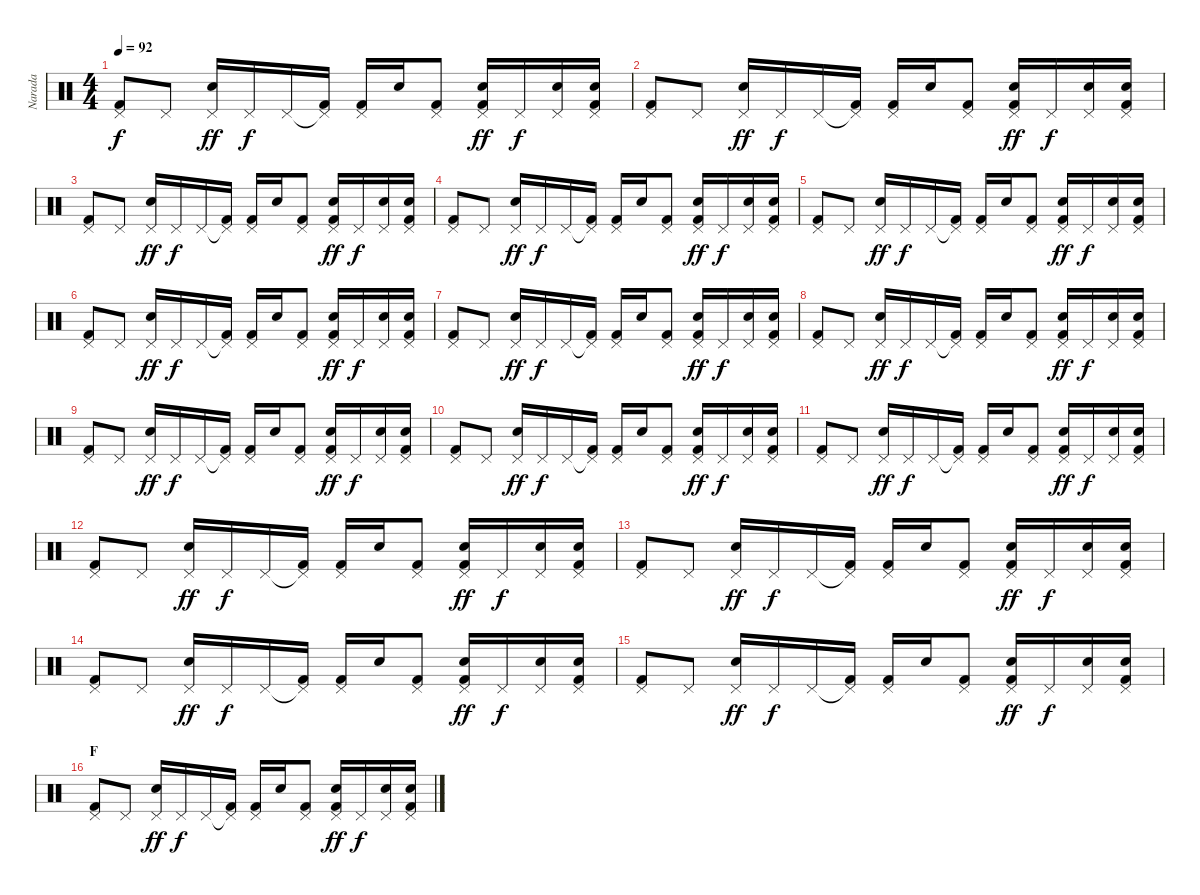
\track ("Narada" "Narada") {instrument percussion}
\staff {score}
\articulation defaults
\ts (4 4)
\tempo 92
\clef neutral
\ks c
("Pedal Hi-Hat (hit)" "Kick (hit) 2").8{dy f} "Pedal Hi-Hat (hit)".8 ("Pedal Hi-Hat (hit)" "Snare (hit) 2").16{dy ff} "Pedal Hi-Hat (hit)".16{dy f} "Pedal Hi-Hat (hit)".16 ("Pedal Hi-Hat (hit)"{t} "Kick (hit) 2").16 ("Pedal Hi-Hat (hit)" "Kick (hit) 2").16 "Snare (hit) 2".16 ("Pedal Hi-Hat (hit)" "Kick (hit) 2").8 ("Pedal Hi-Hat (hit)" "Snare (hit) 2" "Kick (hit) 2").16{dy ff} "Pedal Hi-Hat (hit)".16{dy f} ("Pedal Hi-Hat (hit)" "Snare (hit) 2").16 ("Pedal Hi-Hat (hit)" "Snare (hit) 2" "Kick (hit) 2").16 |
("Pedal Hi-Hat (hit)" "Kick (hit) 2").8 "Pedal Hi-Hat (hit)".8 ("Pedal Hi-Hat (hit)" "Snare (hit) 2").16{dy ff} "Pedal Hi-Hat (hit)".16{dy f} "Pedal Hi-Hat (hit)".16 ("Pedal Hi-Hat (hit)"{t} "Kick (hit) 2").16 ("Pedal Hi-Hat (hit)" "Kick (hit) 2").16 "Snare (hit) 2".16 ("Pedal Hi-Hat (hit)" "Kick (hit) 2").8 ("Pedal Hi-Hat (hit)" "Snare (hit) 2" "Kick (hit) 2").16{dy ff} "Pedal Hi-Hat (hit)".16{dy f} ("Pedal Hi-Hat (hit)" "Snare (hit) 2").16 ("Pedal Hi-Hat (hit)" "Snare (hit) 2" "Kick (hit) 2").16 |
("Pedal Hi-Hat (hit)" "Kick (hit) 2").8 "Pedal Hi-Hat (hit)".8 ("Pedal Hi-Hat (hit)" "Snare (hit) 2").16{dy ff} "Pedal Hi-Hat (hit)".16{dy f} "Pedal Hi-Hat (hit)".16 ("Pedal Hi-Hat (hit)"{t} "Kick (hit) 2").16 ("Pedal Hi-Hat (hit)" "Kick (hit) 2").16 "Snare (hit) 2".16 ("Pedal Hi-Hat (hit)" "Kick (hit) 2").8 ("Pedal Hi-Hat (hit)" "Snare (hit) 2" "Kick (hit) 2").16{dy ff} "Pedal Hi-Hat (hit)".16{dy f} ("Pedal Hi-Hat (hit)" "Snare (hit) 2").16 ("Pedal Hi-Hat (hit)" "Snare (hit) 2" "Kick (hit) 2").16 |
("Pedal Hi-Hat (hit)" "Kick (hit) 2").8 "Pedal Hi-Hat (hit)".8 ("Pedal Hi-Hat (hit)" "Snare (hit) 2").16{dy ff} "Pedal Hi-Hat (hit)".16{dy f} "Pedal Hi-Hat (hit)".16 ("Pedal Hi-Hat (hit)"{t} "Kick (hit) 2").16 ("Pedal Hi-Hat (hit)" "Kick (hit) 2").16 "Snare (hit) 2".16 ("Pedal Hi-Hat (hit)" "Kick (hit) 2").8 ("Pedal Hi-Hat (hit)" "Snare (hit) 2" "Kick (hit) 2").16{dy ff} "Pedal Hi-Hat (hit)".16{dy f} ("Pedal Hi-Hat (hit)" "Snare (hit) 2").16 ("Pedal Hi-Hat (hit)" "Snare (hit) 2" "Kick (hit) 2").16 |
("Pedal Hi-Hat (hit)" "Kick (hit) 2").8 "Pedal Hi-Hat (hit)".8 ("Pedal Hi-Hat (hit)" "Snare (hit) 2").16{dy ff} "Pedal Hi-Hat (hit)".16{dy f} "Pedal Hi-Hat (hit)".16 ("Pedal Hi-Hat (hit)"{t} "Kick (hit) 2").16 ("Pedal Hi-Hat (hit)" "Kick (hit) 2").16 "Snare (hit) 2".16 ("Pedal Hi-Hat (hit)" "Kick (hit) 2").8 ("Pedal Hi-Hat (hit)" "Snare (hit) 2" "Kick (hit) 2").16{dy ff} "Pedal Hi-Hat (hit)".16{dy f} ("Pedal Hi-Hat (hit)" "Snare (hit) 2").16 ("Pedal Hi-Hat (hit)" "Snare (hit) 2" "Kick (hit) 2").16 |
("Pedal Hi-Hat (hit)" "Kick (hit) 2").8 "Pedal Hi-Hat (hit)".8 ("Pedal Hi-Hat (hit)" "Snare (hit) 2").16{dy ff} "Pedal Hi-Hat (hit)".16{dy f} "Pedal Hi-Hat (hit)".16 ("Pedal Hi-Hat (hit)"{t} "Kick (hit) 2").16 ("Pedal Hi-Hat (hit)" "Kick (hit) 2").16 "Snare (hit) 2".16 ("Pedal Hi-Hat (hit)" "Kick (hit) 2").8 ("Pedal Hi-Hat (hit)" "Snare (hit) 2" "Kick (hit) 2").16{dy ff} "Pedal Hi-Hat (hit)".16{dy f} ("Pedal Hi-Hat (hit)" "Snare (hit) 2").16 ("Pedal Hi-Hat (hit)" "Snare (hit) 2" "Kick (hit) 2").16 |
("Pedal Hi-Hat (hit)" "Kick (hit) 2").8 "Pedal Hi-Hat (hit)".8 ("Pedal Hi-Hat (hit)" "Snare (hit) 2").16{dy ff} "Pedal Hi-Hat (hit)".16{dy f} "Pedal Hi-Hat (hit)".16 ("Pedal Hi-Hat (hit)"{t} "Kick (hit) 2").16 ("Pedal Hi-Hat (hit)" "Kick (hit) 2").16 "Snare (hit) 2".16 ("Pedal Hi-Hat (hit)" "Kick (hit) 2").8 ("Pedal Hi-Hat (hit)" "Snare (hit) 2" "Kick (hit) 2").16{dy ff} "Pedal Hi-Hat (hit)".16{dy f} ("Pedal Hi-Hat (hit)" "Snare (hit) 2").16 ("Pedal Hi-Hat (hit)" "Snare (hit) 2" "Kick (hit) 2").16 |
("Pedal Hi-Hat (hit)" "Kick (hit) 2").8 "Pedal Hi-Hat (hit)".8 ("Pedal Hi-Hat (hit)" "Snare (hit) 2").16{dy ff} "Pedal Hi-Hat (hit)".16{dy f} "Pedal Hi-Hat (hit)".16 ("Pedal Hi-Hat (hit)"{t} "Kick (hit) 2").16 ("Pedal Hi-Hat (hit)" "Kick (hit) 2").16 "Snare (hit) 2".16 ("Pedal Hi-Hat (hit)" "Kick (hit) 2").8 ("Pedal Hi-Hat (hit)" "Snare (hit) 2" "Kick (hit) 2").16{dy ff} "Pedal Hi-Hat (hit)".16{dy f} ("Pedal Hi-Hat (hit)" "Snare (hit) 2").16 ("Pedal Hi-Hat (hit)" "Snare (hit) 2" "Kick (hit) 2").16 |
("Pedal Hi-Hat (hit)" "Kick (hit) 2").8 "Pedal Hi-Hat (hit)".8 ("Pedal Hi-Hat (hit)" "Snare (hit) 2").16{dy ff} "Pedal Hi-Hat (hit)".16{dy f} "Pedal Hi-Hat (hit)".16 ("Pedal Hi-Hat (hit)"{t} "Kick (hit) 2").16 ("Pedal Hi-Hat (hit)" "Kick (hit) 2").16 "Snare (hit) 2".16 ("Pedal Hi-Hat (hit)" "Kick (hit) 2").8 ("Pedal Hi-Hat (hit)" "Snare (hit) 2" "Kick (hit) 2").16{dy ff} "Pedal Hi-Hat (hit)".16{dy f} ("Pedal Hi-Hat (hit)" "Snare (hit) 2").16 ("Pedal Hi-Hat (hit)" "Snare (hit) 2" "Kick (hit) 2").16 |
("Pedal Hi-Hat (hit)" "Kick (hit) 2").8 "Pedal Hi-Hat (hit)".8 ("Pedal Hi-Hat (hit)" "Snare (hit) 2").16{dy ff} "Pedal Hi-Hat (hit)".16{dy f} "Pedal Hi-Hat (hit)".16 ("Pedal Hi-Hat (hit)"{t} "Kick (hit) 2").16 ("Pedal Hi-Hat (hit)" "Kick (hit) 2").16 "Snare (hit) 2".16 ("Pedal Hi-Hat (hit)" "Kick (hit) 2").8 ("Pedal Hi-Hat (hit)" "Snare (hit) 2" "Kick (hit) 2").16{dy ff} "Pedal Hi-Hat (hit)".16{dy f} ("Pedal Hi-Hat (hit)" "Snare (hit) 2").16 ("Pedal Hi-Hat (hit)" "Snare (hit) 2" "Kick (hit) 2").16 |
("Pedal Hi-Hat (hit)" "Kick (hit) 2").8 "Pedal Hi-Hat (hit)".8 ("Pedal Hi-Hat (hit)" "Snare (hit) 2").16{dy ff} "Pedal Hi-Hat (hit)".16{dy f} "Pedal Hi-Hat (hit)".16 ("Pedal Hi-Hat (hit)"{t} "Kick (hit) 2").16 ("Pedal Hi-Hat (hit)" "Kick (hit) 2").16 "Snare (hit) 2".16 ("Pedal Hi-Hat (hit)" "Kick (hit) 2").8 ("Pedal Hi-Hat (hit)" "Snare (hit) 2" "Kick (hit) 2").16{dy ff} "Pedal Hi-Hat (hit)".16{dy f} ("Pedal Hi-Hat (hit)" "Snare (hit) 2").16 ("Pedal Hi-Hat (hit)" "Snare (hit) 2" "Kick (hit) 2").16 |
("Pedal Hi-Hat (hit)" "Kick (hit) 2").8 "Pedal Hi-Hat (hit)".8 ("Pedal Hi-Hat (hit)" "Snare (hit) 2").16{dy ff} "Pedal Hi-Hat (hit)".16{dy f} "Pedal Hi-Hat (hit)".16 ("Pedal Hi-Hat (hit)"{t} "Kick (hit) 2").16 ("Pedal Hi-Hat (hit)" "Kick (hit) 2").16 "Snare (hit) 2".16 ("Pedal Hi-Hat (hit)" "Kick (hit) 2").8 ("Pedal Hi-Hat (hit)" "Snare (hit) 2" "Kick (hit) 2").16{dy ff} "Pedal Hi-Hat (hit)".16{dy f} ("Pedal Hi-Hat (hit)" "Snare (hit) 2").16 ("Pedal Hi-Hat (hit)" "Snare (hit) 2" "Kick (hit) 2").16 |
("Pedal Hi-Hat (hit)" "Kick (hit) 2").8 "Pedal Hi-Hat (hit)".8 ("Pedal Hi-Hat (hit)" "Snare (hit) 2").16{dy ff} "Pedal Hi-Hat (hit)".16{dy f} "Pedal Hi-Hat (hit)".16 ("Pedal Hi-Hat (hit)"{t} "Kick (hit) 2").16 ("Pedal Hi-Hat (hit)" "Kick (hit) 2").16 "Snare (hit) 2".16 ("Pedal Hi-Hat (hit)" "Kick (hit) 2").8 ("Pedal Hi-Hat (hit)" "Snare (hit) 2" "Kick (hit) 2").16{dy ff} "Pedal Hi-Hat (hit)".16{dy f} ("Pedal Hi-Hat (hit)" "Snare (hit) 2").16 ("Pedal Hi-Hat (hit)" "Snare (hit) 2" "Kick (hit) 2").16 |
("Pedal Hi-Hat (hit)" "Kick (hit) 2").8 "Pedal Hi-Hat (hit)".8 ("Pedal Hi-Hat (hit)" "Snare (hit) 2").16{dy ff} "Pedal Hi-Hat (hit)".16{dy f} "Pedal Hi-Hat (hit)".16 ("Pedal Hi-Hat (hit)"{t} "Kick (hit) 2").16 ("Pedal Hi-Hat (hit)" "Kick (hit) 2").16 "Snare (hit) 2".16 ("Pedal Hi-Hat (hit)" "Kick (hit) 2").8 ("Pedal Hi-Hat (hit)" "Snare (hit) 2" "Kick (hit) 2").16{dy ff} "Pedal Hi-Hat (hit)".16{dy f} ("Pedal Hi-Hat (hit)" "Snare (hit) 2").16 ("Pedal Hi-Hat (hit)" "Snare (hit) 2" "Kick (hit) 2").16 |
("Pedal Hi-Hat (hit)" "Kick (hit) 2").8 "Pedal Hi-Hat (hit)".8 ("Pedal Hi-Hat (hit)" "Snare (hit) 2").16{dy ff} "Pedal Hi-Hat (hit)".16{dy f} "Pedal Hi-Hat (hit)".16 ("Pedal Hi-Hat (hit)"{t} "Kick (hit) 2").16 ("Pedal Hi-Hat (hit)" "Kick (hit) 2").16 "Snare (hit) 2".16 ("Pedal Hi-Hat (hit)" "Kick (hit) 2").8 ("Pedal Hi-Hat (hit)" "Snare (hit) 2" "Kick (hit) 2").16{dy ff} "Pedal Hi-Hat (hit)".16{dy f} ("Pedal Hi-Hat (hit)" "Snare (hit) 2").16 ("Pedal Hi-Hat (hit)" "Snare (hit) 2" "Kick (hit) 2").16 |
\section ("" "F")
("Pedal Hi-Hat (hit)" "Kick (hit) 2").8 "Pedal Hi-Hat (hit)".8 ("Pedal Hi-Hat (hit)" "Snare (hit) 2").16{dy ff} "Pedal Hi-Hat (hit)".16{dy f} "Pedal Hi-Hat (hit)".16 ("Pedal Hi-Hat (hit)"{t} "Kick (hit) 2").16 ("Pedal Hi-Hat (hit)" "Kick (hit) 2").16 "Snare (hit) 2".16 ("Pedal Hi-Hat (hit)" "Kick (hit) 2").8 ("Pedal Hi-Hat (hit)" "Snare (hit) 2" "Kick (hit) 2").16{dy ff} "Pedal Hi-Hat (hit)".16{dy f} ("Pedal Hi-Hat (hit)" "Snare (hit) 2").16 ("Pedal Hi-Hat (hit)" "Snare (hit) 2" "Kick (hit) 2").16
